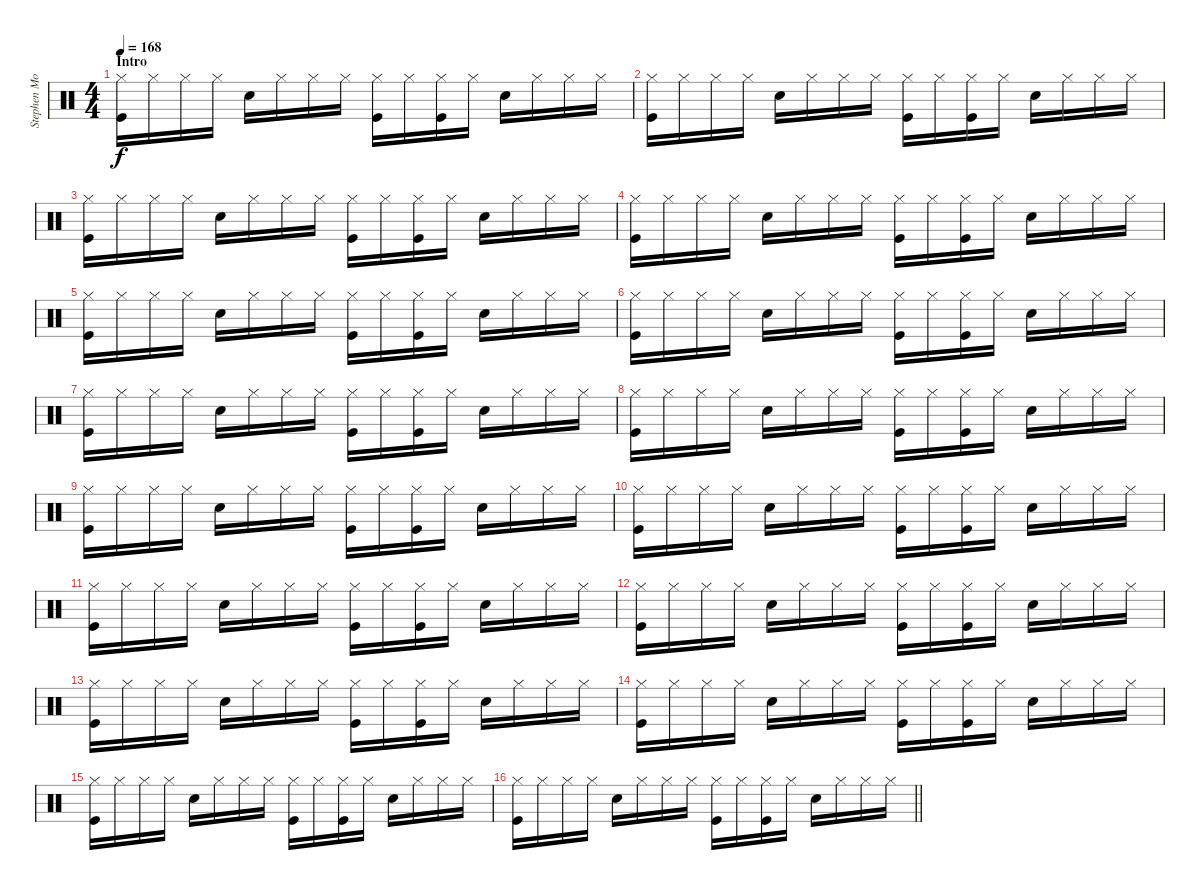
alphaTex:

\track ("Stephen Morris - Drums" "Stephen Mo") {instrument percussion}
\staff {score}
\articulation defaults
\ts (4 4)
\section ("" "Intro")
\tempo 168
\clef neutral
\ks c
("Hi-Hat (closed)" "Kick (hit)").16{dy f} "Hi-Hat (closed)".16 "Hi-Hat (closed)".16 "Hi-Hat (closed)".16 "Snare (hit) 2".16 "Hi-Hat (closed)".16 "Hi-Hat (closed)".16 "Hi-Hat (closed)".16 ("Hi-Hat (closed)" "Kick (hit)").16 "Hi-Hat (closed)".16 ("Hi-Hat (closed)" "Kick (hit)").16 "Hi-Hat (closed)".16 "Snare (hit) 2".16 "Hi-Hat (closed)".16 "Hi-Hat (closed)".16 "Hi-Hat (closed)".16 |
("Hi-Hat (closed)" "Kick (hit)").16 "Hi-Hat (closed)".16 "Hi-Hat (closed)".16 "Hi-Hat (closed)".16 "Snare (hit) 2".16 "Hi-Hat (closed)".16 "Hi-Hat (closed)".16 "Hi-Hat (closed)".16 ("Hi-Hat (closed)" "Kick (hit)").16 "Hi-Hat (closed)".16 ("Hi-Hat (closed)" "Kick (hit)").16 "Hi-Hat (closed)".16 "Snare (hit) 2".16 "Hi-Hat (closed)".16 "Hi-Hat (closed)".16 "Hi-Hat (closed)".16 |
("Hi-Hat (closed)" "Kick (hit)").16 "Hi-Hat (closed)".16 "Hi-Hat (closed)".16 "Hi-Hat (closed)".16 "Snare (hit) 2".16 "Hi-Hat (closed)".16 "Hi-Hat (closed)".16 "Hi-Hat (closed)".16 ("Hi-Hat (closed)" "Kick (hit)").16 "Hi-Hat (closed)".16 ("Hi-Hat (closed)" "Kick (hit)").16 "Hi-Hat (closed)".16 "Snare (hit) 2".16 "Hi-Hat (closed)".16 "Hi-Hat (closed)".16 "Hi-Hat (closed)".16 |
("Hi-Hat (closed)" "Kick (hit)").16 "Hi-Hat (closed)".16 "Hi-Hat (closed)".16 "Hi-Hat (closed)".16 "Snare (hit) 2".16 "Hi-Hat (closed)".16 "Hi-Hat (closed)".16 "Hi-Hat (closed)".16 ("Hi-Hat (closed)" "Kick (hit)").16 "Hi-Hat (closed)".16 ("Hi-Hat (closed)" "Kick (hit)").16 "Hi-Hat (closed)".16 "Snare (hit) 2".16 "Hi-Hat (closed)".16 "Hi-Hat (closed)".16 "Hi-Hat (closed)".16 |
("Hi-Hat (closed)" "Kick (hit)").16 "Hi-Hat (closed)".16 "Hi-Hat (closed)".16 "Hi-Hat (closed)".16 "Snare (hit) 2".16 "Hi-Hat (closed)".16 "Hi-Hat (closed)".16 "Hi-Hat (closed)".16 ("Hi-Hat (closed)" "Kick (hit)").16 "Hi-Hat (closed)".16 ("Hi-Hat (closed)" "Kick (hit)").16 "Hi-Hat (closed)".16 "Snare (hit) 2".16 "Hi-Hat (closed)".16 "Hi-Hat (closed)".16 "Hi-Hat (closed)".16 |
("Hi-Hat (closed)" "Kick (hit)").16 "Hi-Hat (closed)".16 "Hi-Hat (closed)".16 "Hi-Hat (closed)".16 "Snare (hit) 2".16 "Hi-Hat (closed)".16 "Hi-Hat (closed)".16 "Hi-Hat (closed)".16 ("Hi-Hat (closed)" "Kick (hit)").16 "Hi-Hat (closed)".16 ("Hi-Hat (closed)" "Kick (hit)").16 "Hi-Hat (closed)".16 "Snare (hit) 2".16 "Hi-Hat (closed)".16 "Hi-Hat (closed)".16 "Hi-Hat (closed)".16 |
("Hi-Hat (closed)" "Kick (hit)").16 "Hi-Hat (closed)".16 "Hi-Hat (closed)".16 "Hi-Hat (closed)".16 "Snare (hit) 2".16 "Hi-Hat (closed)".16 "Hi-Hat (closed)".16 "Hi-Hat (closed)".16 ("Hi-Hat (closed)" "Kick (hit)").16 "Hi-Hat (closed)".16 ("Hi-Hat (closed)" "Kick (hit)").16 "Hi-Hat (closed)".16 "Snare (hit) 2".16 "Hi-Hat (closed)".16 "Hi-Hat (closed)".16 "Hi-Hat (closed)".16 |
("Hi-Hat (closed)" "Kick (hit)").16 "Hi-Hat (closed)".16 "Hi-Hat (closed)".16 "Hi-Hat (closed)".16 "Snare (hit) 2".16 "Hi-Hat (closed)".16 "Hi-Hat (closed)".16 "Hi-Hat (closed)".16 ("Hi-Hat (closed)" "Kick (hit)").16 "Hi-Hat (closed)".16 ("Hi-Hat (closed)" "Kick (hit)").16 "Hi-Hat (closed)".16 "Snare (hit) 2".16 "Hi-Hat (closed)".16 "Hi-Hat (closed)".16 "Hi-Hat (closed)".16 |
("Hi-Hat (closed)" "Kick (hit)").16 "Hi-Hat (closed)".16 "Hi-Hat (closed)".16 "Hi-Hat (closed)".16 "Snare (hit) 2".16 "Hi-Hat (closed)".16 "Hi-Hat (closed)".16 "Hi-Hat (closed)".16 ("Hi-Hat (closed)" "Kick (hit)").16 "Hi-Hat (closed)".16 ("Hi-Hat (closed)" "Kick (hit)").16 "Hi-Hat (closed)".16 "Snare (hit) 2".16 "Hi-Hat (closed)".16 "Hi-Hat (closed)".16 "Hi-Hat (closed)".16 |
("Hi-Hat (closed)" "Kick (hit)").16 "Hi-Hat (closed)".16 "Hi-Hat (closed)".16 "Hi-Hat (closed)".16 "Snare (hit) 2".16 "Hi-Hat (closed)".16 "Hi-Hat (closed)".16 "Hi-Hat (closed)".16 ("Hi-Hat (closed)" "Kick (hit)").16 "Hi-Hat (closed)".16 ("Hi-Hat (closed)" "Kick (hit)").16 "Hi-Hat (closed)".16 "Snare (hit) 2".16 "Hi-Hat (closed)".16 "Hi-Hat (closed)".16 "Hi-Hat (closed)".16 |
("Hi-Hat (closed)" "Kick (hit)").16 "Hi-Hat (closed)".16 "Hi-Hat (closed)".16 "Hi-Hat (closed)".16 "Snare (hit) 2".16 "Hi-Hat (closed)".16 "Hi-Hat (closed)".16 "Hi-Hat (closed)".16 ("Hi-Hat (closed)" "Kick (hit)").16 "Hi-Hat (closed)".16 ("Hi-Hat (closed)" "Kick (hit)").16 "Hi-Hat (closed)".16 "Snare (hit) 2".16 "Hi-Hat (closed)".16 "Hi-Hat (closed)".16 "Hi-Hat (closed)".16 |
("Hi-Hat (closed)" "Kick (hit)").16 "Hi-Hat (closed)".16 "Hi-Hat (closed)".16 "Hi-Hat (closed)".16 "Snare (hit) 2".16 "Hi-Hat (closed)".16 "Hi-Hat (closed)".16 "Hi-Hat (closed)".16 ("Hi-Hat (closed)" "Kick (hit)").16 "Hi-Hat (closed)".16 ("Hi-Hat (closed)" "Kick (hit)").16 "Hi-Hat (closed)".16 "Snare (hit) 2".16 "Hi-Hat (closed)".16 "Hi-Hat (closed)".16 "Hi-Hat (closed)".16 |
("Hi-Hat (closed)" "Kick (hit)").16 "Hi-Hat (closed)".16 "Hi-Hat (closed)".16 "Hi-Hat (closed)".16 "Snare (hit) 2".16 "Hi-Hat (closed)".16 "Hi-Hat (closed)".16 "Hi-Hat (closed)".16 ("Hi-Hat (closed)" "Kick (hit)").16 "Hi-Hat (closed)".16 ("Hi-Hat (closed)" "Kick (hit)").16 "Hi-Hat (closed)".16 "Snare (hit) 2".16 "Hi-Hat (closed)".16 "Hi-Hat (closed)".16 "Hi-Hat (closed)".16 |
("Hi-Hat (closed)" "Kick (hit)").16 "Hi-Hat (closed)".16 "Hi-Hat (closed)".16 "Hi-Hat (closed)".16 "Snare (hit) 2".16 "Hi-Hat (closed)".16 "Hi-Hat (closed)".16 "Hi-Hat (closed)".16 ("Hi-Hat (closed)" "Kick (hit)").16 "Hi-Hat (closed)".16 ("Hi-Hat (closed)" "Kick (hit)").16 "Hi-Hat (closed)".16 "Snare (hit) 2".16 "Hi-Hat (closed)".16 "Hi-Hat (closed)".16 "Hi-Hat (closed)".16 |
("Hi-Hat (closed)" "Kick (hit)").16 "Hi-Hat (closed)".16 "Hi-Hat (closed)".16 "Hi-Hat (closed)".16 "Snare (hit) 2".16 "Hi-Hat (closed)".16 "Hi-Hat (closed)".16 "Hi-Hat (closed)".16 ("Hi-Hat (closed)" "Kick (hit)").16 "Hi-Hat (closed)".16 ("Hi-Hat (closed)" "Kick (hit)").16 "Hi-Hat (closed)".16 "Snare (hit) 2".16 "Hi-Hat (closed)".16 "Hi-Hat (closed)".16 "Hi-Hat (closed)".16 |
\barLineRight lightlight
("Hi-Hat (closed)" "Kick (hit)").16 "Hi-Hat (closed)".16 "Hi-Hat (closed)".16 "Hi-Hat (closed)".16 "Snare (hit) 2".16 "Hi-Hat (closed)".16 "Hi-Hat (closed)".16 "Hi-Hat (closed)".16 ("Hi-Hat (closed)" "Kick (hit)").16 "Hi-Hat (closed)".16 ("Hi-Hat (closed)" "Kick (hit)").16 "Hi-Hat (closed)".16 "Snare (hit) 2".16 "Hi-Hat (closed)".16 "Hi-Hat (closed)".16 "Hi-Hat (closed)".16
